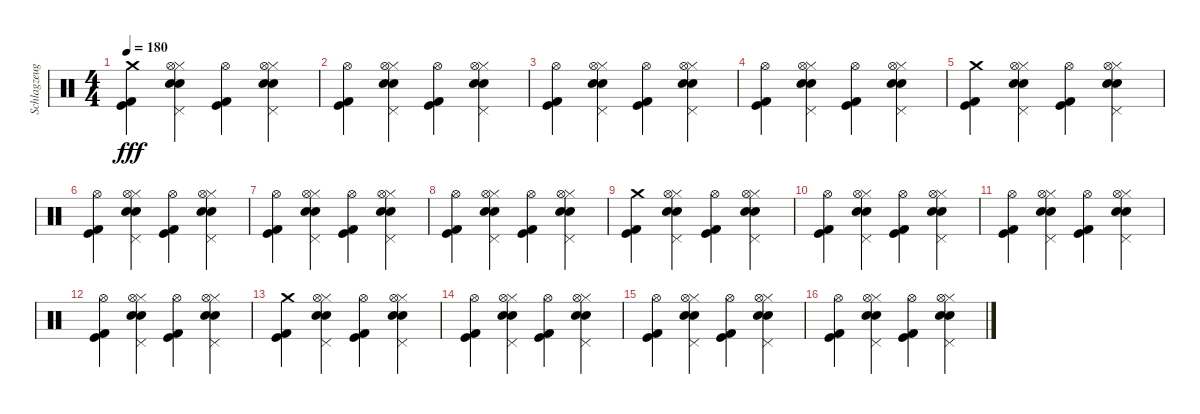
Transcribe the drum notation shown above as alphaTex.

\track ("Schlagzeug" "Schlagzeug") {instrument percussion}
\staff {score}
\articulation defaults
\ts (4 4)
\tempo 180
\clef neutral
\ks c
("Kick (hit)" "Kick (hit) 2" "Crash medium (hit)").4{dy fff} ("Electric Snare (hit)" "Hi-Hat (closed)" "Snare (hit) 2" "Pedal Hi-Hat (hit)" "Hi-Hat (open)").4 ("Kick (hit)" "Kick (hit) 2" "Hi-Hat (open)").4 ("Electric Snare (hit)" "Hi-Hat (closed)" "Snare (hit) 2" "Pedal Hi-Hat (hit)" "Hi-Hat (open)").4 |
("Kick (hit)" "Kick (hit) 2" "Hi-Hat (open)").4 ("Electric Snare (hit)" "Hi-Hat (closed)" "Snare (hit) 2" "Pedal Hi-Hat (hit)" "Hi-Hat (open)").4 ("Kick (hit)" "Kick (hit) 2" "Hi-Hat (open)").4 ("Electric Snare (hit)" "Hi-Hat (closed)" "Snare (hit) 2" "Pedal Hi-Hat (hit)" "Hi-Hat (open)").4 |
("Kick (hit)" "Kick (hit) 2" "Hi-Hat (open)").4 ("Electric Snare (hit)" "Hi-Hat (closed)" "Snare (hit) 2" "Pedal Hi-Hat (hit)" "Hi-Hat (open)").4 ("Kick (hit)" "Kick (hit) 2" "Hi-Hat (open)").4 ("Electric Snare (hit)" "Hi-Hat (closed)" "Snare (hit) 2" "Pedal Hi-Hat (hit)" "Hi-Hat (open)").4 |
("Kick (hit)" "Kick (hit) 2" "Hi-Hat (open)").4 ("Electric Snare (hit)" "Hi-Hat (closed)" "Snare (hit) 2" "Pedal Hi-Hat (hit)" "Hi-Hat (open)").4 ("Kick (hit)" "Kick (hit) 2" "Hi-Hat (open)").4 ("Electric Snare (hit)" "Hi-Hat (closed)" "Snare (hit) 2" "Pedal Hi-Hat (hit)" "Hi-Hat (open)").4 |
("Kick (hit)" "Kick (hit) 2" "Crash medium (hit)").4 ("Electric Snare (hit)" "Hi-Hat (closed)" "Snare (hit) 2" "Pedal Hi-Hat (hit)" "Hi-Hat (open)").4 ("Kick (hit)" "Kick (hit) 2" "Hi-Hat (open)").4 ("Electric Snare (hit)" "Hi-Hat (closed)" "Snare (hit) 2" "Pedal Hi-Hat (hit)" "Hi-Hat (open)").4 |
("Kick (hit)" "Kick (hit) 2" "Hi-Hat (open)").4 ("Electric Snare (hit)" "Hi-Hat (closed)" "Snare (hit) 2" "Pedal Hi-Hat (hit)" "Hi-Hat (open)").4 ("Kick (hit)" "Kick (hit) 2" "Hi-Hat (open)").4 ("Electric Snare (hit)" "Hi-Hat (closed)" "Snare (hit) 2" "Pedal Hi-Hat (hit)" "Hi-Hat (open)").4 |
("Kick (hit)" "Kick (hit) 2" "Hi-Hat (open)").4 ("Electric Snare (hit)" "Hi-Hat (closed)" "Snare (hit) 2" "Pedal Hi-Hat (hit)" "Hi-Hat (open)").4 ("Kick (hit)" "Kick (hit) 2" "Hi-Hat (open)").4 ("Electric Snare (hit)" "Hi-Hat (closed)" "Snare (hit) 2" "Pedal Hi-Hat (hit)" "Hi-Hat (open)").4 |
("Kick (hit)" "Kick (hit) 2" "Hi-Hat (open)").4 ("Electric Snare (hit)" "Hi-Hat (closed)" "Snare (hit) 2" "Pedal Hi-Hat (hit)" "Hi-Hat (open)").4 ("Kick (hit)" "Kick (hit) 2" "Hi-Hat (open)").4 ("Electric Snare (hit)" "Hi-Hat (closed)" "Snare (hit) 2" "Pedal Hi-Hat (hit)" "Hi-Hat (open)").4 |
("Kick (hit)" "Kick (hit) 2" "Crash medium (hit)").4 ("Electric Snare (hit)" "Hi-Hat (closed)" "Snare (hit) 2" "Pedal Hi-Hat (hit)" "Hi-Hat (open)").4 ("Kick (hit)" "Kick (hit) 2" "Hi-Hat (open)").4 ("Electric Snare (hit)" "Hi-Hat (closed)" "Snare (hit) 2" "Pedal Hi-Hat (hit)" "Hi-Hat (open)").4 |
("Kick (hit)" "Kick (hit) 2" "Hi-Hat (open)").4 ("Electric Snare (hit)" "Hi-Hat (closed)" "Snare (hit) 2" "Pedal Hi-Hat (hit)" "Hi-Hat (open)").4 ("Kick (hit)" "Kick (hit) 2" "Hi-Hat (open)").4 ("Electric Snare (hit)" "Hi-Hat (closed)" "Snare (hit) 2" "Pedal Hi-Hat (hit)" "Hi-Hat (open)").4 |
("Kick (hit)" "Kick (hit) 2" "Hi-Hat (open)").4 ("Electric Snare (hit)" "Hi-Hat (closed)" "Snare (hit) 2" "Pedal Hi-Hat (hit)" "Hi-Hat (open)").4 ("Kick (hit)" "Kick (hit) 2" "Hi-Hat (open)").4 ("Electric Snare (hit)" "Hi-Hat (closed)" "Snare (hit) 2" "Pedal Hi-Hat (hit)" "Hi-Hat (open)").4 |
("Kick (hit)" "Kick (hit) 2" "Hi-Hat (open)").4 ("Electric Snare (hit)" "Hi-Hat (closed)" "Snare (hit) 2" "Pedal Hi-Hat (hit)" "Hi-Hat (open)").4 ("Kick (hit)" "Kick (hit) 2" "Hi-Hat (open)").4 ("Electric Snare (hit)" "Hi-Hat (closed)" "Snare (hit) 2" "Pedal Hi-Hat (hit)" "Hi-Hat (open)").4 |
("Kick (hit)" "Kick (hit) 2" "Crash medium (hit)").4 ("Electric Snare (hit)" "Hi-Hat (closed)" "Snare (hit) 2" "Pedal Hi-Hat (hit)" "Hi-Hat (open)").4 ("Kick (hit)" "Kick (hit) 2" "Hi-Hat (open)").4 ("Electric Snare (hit)" "Hi-Hat (closed)" "Snare (hit) 2" "Pedal Hi-Hat (hit)" "Hi-Hat (open)").4 |
("Kick (hit)" "Kick (hit) 2" "Hi-Hat (open)").4 ("Electric Snare (hit)" "Hi-Hat (closed)" "Snare (hit) 2" "Pedal Hi-Hat (hit)" "Hi-Hat (open)").4 ("Kick (hit)" "Kick (hit) 2" "Hi-Hat (open)").4 ("Electric Snare (hit)" "Hi-Hat (closed)" "Snare (hit) 2" "Pedal Hi-Hat (hit)" "Hi-Hat (open)").4 |
("Kick (hit)" "Kick (hit) 2" "Hi-Hat (open)").4 ("Electric Snare (hit)" "Hi-Hat (closed)" "Snare (hit) 2" "Pedal Hi-Hat (hit)" "Hi-Hat (open)").4 ("Kick (hit)" "Kick (hit) 2" "Hi-Hat (open)").4 ("Electric Snare (hit)" "Hi-Hat (closed)" "Snare (hit) 2" "Pedal Hi-Hat (hit)" "Hi-Hat (open)").4 |
("Kick (hit)" "Kick (hit) 2" "Hi-Hat (open)").4 ("Electric Snare (hit)" "Hi-Hat (closed)" "Snare (hit) 2" "Pedal Hi-Hat (hit)" "Hi-Hat (open)").4 ("Kick (hit)" "Kick (hit) 2" "Hi-Hat (open)").4 ("Electric Snare (hit)" "Hi-Hat (closed)" "Snare (hit) 2" "Pedal Hi-Hat (hit)" "Hi-Hat (open)").4
